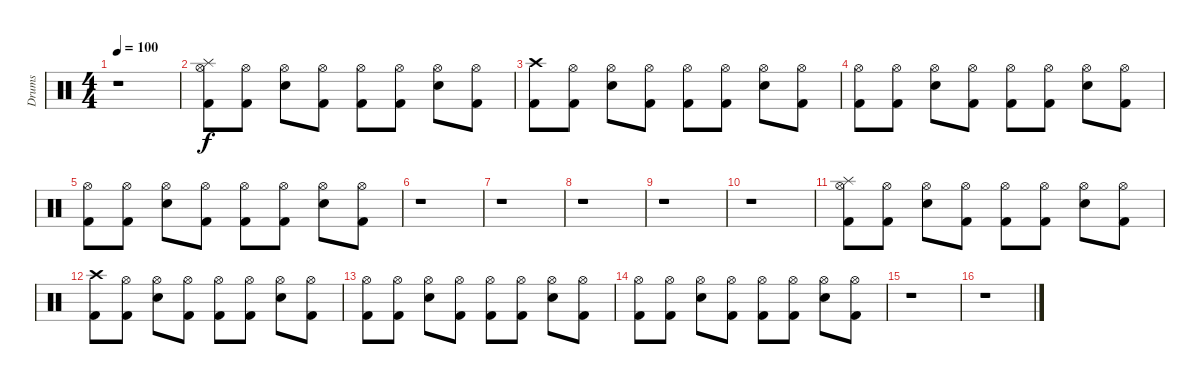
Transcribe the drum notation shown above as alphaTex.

\track ("Drums" "Drums") {instrument percussion}
\staff {score}
\articulation defaults
\ts (4 4)
\tempo 100
\clef neutral
\ks c
r.1{dy f} |
("Kick (hit) 2" "Splash (hit)" "Hi-Hat (open)").8 ("Kick (hit) 2" "Hi-Hat (open)").8 ("Electric Snare (hit)" "Hi-Hat (open)").8 ("Kick (hit) 2" "Hi-Hat (open)").8 ("Kick (hit) 2" "Hi-Hat (open)").8 ("Kick (hit) 2" "Hi-Hat (open)").8 ("Electric Snare (hit)" "Hi-Hat (open)").8 ("Kick (hit) 2" "Hi-Hat (open)").8 |
("Kick (hit) 2" "Crash high (hit)").8 ("Kick (hit) 2" "Hi-Hat (open)").8 ("Electric Snare (hit)" "Hi-Hat (open)").8 ("Kick (hit) 2" "Hi-Hat (open)").8 ("Kick (hit) 2" "Hi-Hat (open)").8 ("Kick (hit) 2" "Hi-Hat (open)").8 ("Electric Snare (hit)" "Hi-Hat (open)").8 ("Kick (hit) 2" "Hi-Hat (open)").8 |
("Kick (hit) 2" "Hi-Hat (open)").8 ("Kick (hit) 2" "Hi-Hat (open)").8 ("Electric Snare (hit)" "Hi-Hat (open)").8 ("Kick (hit) 2" "Hi-Hat (open)").8 ("Kick (hit) 2" "Hi-Hat (open)").8 ("Kick (hit) 2" "Hi-Hat (open)").8 ("Electric Snare (hit)" "Hi-Hat (open)").8 ("Kick (hit) 2" "Hi-Hat (open)").8 |
("Kick (hit) 2" "Hi-Hat (open)").8 ("Kick (hit) 2" "Hi-Hat (open)").8 ("Electric Snare (hit)" "Hi-Hat (open)").8 ("Kick (hit) 2" "Hi-Hat (open)").8 ("Kick (hit) 2" "Hi-Hat (open)").8 ("Kick (hit) 2" "Hi-Hat (open)").8 ("Electric Snare (hit)" "Hi-Hat (open)").8 ("Kick (hit) 2" "Hi-Hat (open)").8 |
r.1 |
r.1 |
r.1 |
r.1 |
r.1 |
("Kick (hit) 2" "Splash (hit)" "Hi-Hat (open)").8 ("Kick (hit) 2" "Hi-Hat (open)").8 ("Electric Snare (hit)" "Hi-Hat (open)").8 ("Kick (hit) 2" "Hi-Hat (open)").8 ("Kick (hit) 2" "Hi-Hat (open)").8 ("Kick (hit) 2" "Hi-Hat (open)").8 ("Electric Snare (hit)" "Hi-Hat (open)").8 ("Kick (hit) 2" "Hi-Hat (open)").8 |
("Kick (hit) 2" "Crash high (hit)").8 ("Kick (hit) 2" "Hi-Hat (open)").8 ("Electric Snare (hit)" "Hi-Hat (open)").8 ("Kick (hit) 2" "Hi-Hat (open)").8 ("Kick (hit) 2" "Hi-Hat (open)").8 ("Kick (hit) 2" "Hi-Hat (open)").8 ("Electric Snare (hit)" "Hi-Hat (open)").8 ("Kick (hit) 2" "Hi-Hat (open)").8 |
("Kick (hit) 2" "Hi-Hat (open)").8 ("Kick (hit) 2" "Hi-Hat (open)").8 ("Electric Snare (hit)" "Hi-Hat (open)").8 ("Kick (hit) 2" "Hi-Hat (open)").8 ("Kick (hit) 2" "Hi-Hat (open)").8 ("Kick (hit) 2" "Hi-Hat (open)").8 ("Electric Snare (hit)" "Hi-Hat (open)").8 ("Kick (hit) 2" "Hi-Hat (open)").8 |
("Kick (hit) 2" "Hi-Hat (open)").8 ("Kick (hit) 2" "Hi-Hat (open)").8 ("Electric Snare (hit)" "Hi-Hat (open)").8 ("Kick (hit) 2" "Hi-Hat (open)").8 ("Kick (hit) 2" "Hi-Hat (open)").8 ("Kick (hit) 2" "Hi-Hat (open)").8 ("Electric Snare (hit)" "Hi-Hat (open)").8 ("Kick (hit) 2" "Hi-Hat (open)").8 |
r.1 |
r.1
